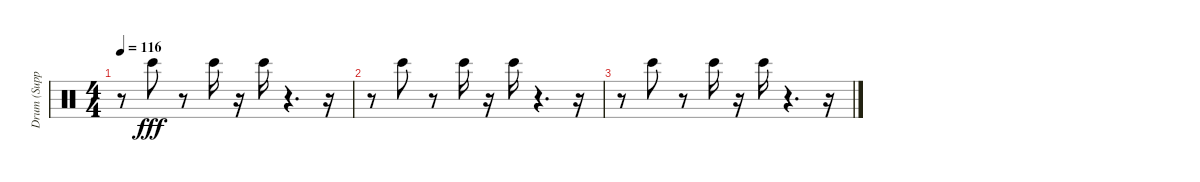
\track ("Drum (Support)" "Drum (Supp") {instrument percussion}
\staff {score}
\articulation defaults
\ts (4 4)
\tempo 116
\clef neutral
\ks c
r.8{dy fff} "Bongo High (hit)".8 r.8 "Bongo High (hit)".16 r.16 "Bongo High (hit)".16 r.4{d} r.16 |
r.8 "Bongo High (hit)".8 r.8 "Bongo High (hit)".16 r.16 "Bongo High (hit)".16 r.4{d} r.16 |
r.8 "Bongo High (hit)".8 r.8 "Bongo High (hit)".16 r.16 "Bongo High (hit)".16 r.4{d} r.16
